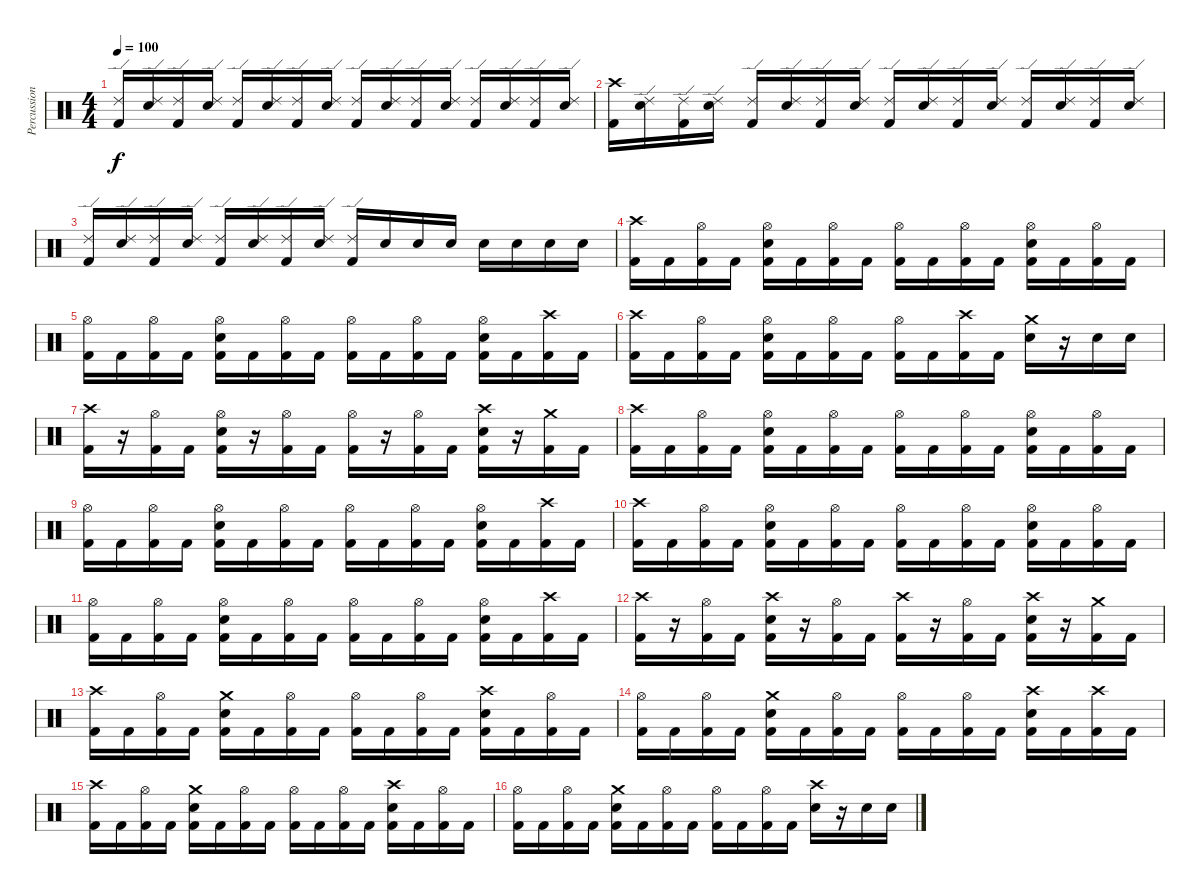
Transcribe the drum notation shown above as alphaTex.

\track ("Percussion" "Percussion") {instrument percussion}
\staff {score}
\articulation defaults
\ts (4 4)
\tempo 100
\clef neutral
\ks c
("Ride (edge) 2" "Kick (hit) 2").16{dy f} ("Ride (edge) 2" "Snare (hit) 2").16 ("Ride (edge) 2" "Kick (hit) 2").16 ("Ride (edge) 2" "Snare (hit) 2").16 ("Ride (edge) 2" "Kick (hit) 2").16 ("Ride (edge) 2" "Snare (hit) 2").16 ("Ride (edge) 2" "Kick (hit) 2").16 ("Ride (edge) 2" "Snare (hit) 2").16 ("Ride (edge) 2" "Kick (hit) 2").16 ("Ride (edge) 2" "Snare (hit) 2").16 ("Ride (edge) 2" "Kick (hit) 2").16 ("Ride (edge) 2" "Snare (hit) 2").16 ("Ride (edge) 2" "Kick (hit) 2").16 ("Ride (edge) 2" "Snare (hit) 2").16 ("Ride (edge) 2" "Kick (hit) 2").16 ("Ride (edge) 2" "Snare (hit) 2").16 |
("Crash high (hit)" "Kick (hit) 2").16 ("Ride (edge) 2" "Snare (hit) 2").16 ("Ride (edge) 2" "Kick (hit) 2").16 ("Ride (edge) 2" "Snare (hit) 2").16 ("Ride (edge) 2" "Kick (hit) 2").16 ("Ride (edge) 2" "Snare (hit) 2").16 ("Ride (edge) 2" "Kick (hit) 2").16 ("Ride (edge) 2" "Snare (hit) 2").16 ("Ride (edge) 2" "Kick (hit) 2").16 ("Ride (edge) 2" "Snare (hit) 2").16 ("Ride (edge) 2" "Kick (hit) 2").16 ("Ride (edge) 2" "Snare (hit) 2").16 ("Ride (edge) 2" "Kick (hit) 2").16 ("Ride (edge) 2" "Snare (hit) 2").16 ("Ride (edge) 2" "Kick (hit) 2").16 ("Ride (edge) 2" "Snare (hit) 2").16 |
("Ride (edge) 2" "Kick (hit) 2").16 ("Ride (edge) 2" "Snare (hit) 2").16 ("Ride (edge) 2" "Kick (hit) 2").16 ("Ride (edge) 2" "Snare (hit) 2").16 ("Ride (edge) 2" "Kick (hit) 2").16 ("Ride (edge) 2" "Snare (hit) 2").16 ("Ride (edge) 2" "Kick (hit) 2").16 ("Ride (edge) 2" "Snare (hit) 2").16 ("Ride (edge) 2" "Kick (hit) 2").16 "Snare (hit) 2".16 "Snare (hit) 2".16 "Snare (hit) 2".16 "Snare (hit) 2".16 "Snare (hit) 2".16 "Snare (hit) 2".16 "Snare (hit) 2".16 |
("Crash high (hit)" "Kick (hit) 2").16 "Kick (hit) 2".16 ("Hi-Hat (open)" "Kick (hit) 2").16 "Kick (hit) 2".16 ("Hi-Hat (open)" "Snare (hit) 2" "Kick (hit) 2").16 "Kick (hit) 2".16 ("Hi-Hat (open)" "Kick (hit) 2").16 "Kick (hit) 2".16 ("Hi-Hat (open)" "Kick (hit) 2").16 "Kick (hit) 2".16 ("Hi-Hat (open)" "Kick (hit) 2").16 "Kick (hit) 2".16 ("Hi-Hat (open)" "Snare (hit) 2" "Kick (hit) 2").16 "Kick (hit) 2".16 ("Hi-Hat (open)" "Kick (hit) 2").16 "Kick (hit) 2".16 |
("Hi-Hat (open)" "Kick (hit) 2").16 "Kick (hit) 2".16 ("Hi-Hat (open)" "Kick (hit) 2").16 "Kick (hit) 2".16 ("Hi-Hat (open)" "Snare (hit) 2" "Kick (hit) 2").16 "Kick (hit) 2".16 ("Hi-Hat (open)" "Kick (hit) 2").16 "Kick (hit) 2".16 ("Hi-Hat (open)" "Kick (hit) 2").16 "Kick (hit) 2".16 ("Hi-Hat (open)" "Kick (hit) 2").16 "Kick (hit) 2".16 ("Hi-Hat (open)" "Snare (hit) 2" "Kick (hit) 2").16 "Kick (hit) 2".16 ("Crash high (hit)" "Kick (hit) 2").16 "Kick (hit) 2".16 |
("Crash high (hit)" "Kick (hit) 2").16 "Kick (hit) 2".16 ("Hi-Hat (open)" "Kick (hit) 2").16 "Kick (hit) 2".16 ("Hi-Hat (open)" "Snare (hit) 2" "Kick (hit) 2").16 "Kick (hit) 2".16 ("Hi-Hat (open)" "Kick (hit) 2").16 "Kick (hit) 2".16 ("Hi-Hat (open)" "Kick (hit) 2").16 "Kick (hit) 2".16 ("Crash high (hit)" "Kick (hit) 2").16 "Kick (hit) 2".16 ("Crash medium (hit)" "Snare (hit) 2").16 r.16 "Snare (hit) 2".16 "Snare (hit) 2".16 |
("Crash high (hit)" "Kick (hit) 2").16 r.16 ("Hi-Hat (open)" "Kick (hit) 2").16 "Kick (hit) 2".16 ("Hi-Hat (open)" "Snare (hit) 2" "Kick (hit) 2").16 r.16 ("Hi-Hat (open)" "Kick (hit) 2").16 "Kick (hit) 2".16 ("Hi-Hat (open)" "Kick (hit) 2").16 r.16 ("Hi-Hat (open)" "Kick (hit) 2").16 "Kick (hit) 2".16 ("Crash high (hit)" "Snare (hit) 2" "Kick (hit) 2").16 r.16 ("Crash medium (hit)" "Kick (hit) 2").16 "Kick (hit) 2".16 |
("Crash high (hit)" "Kick (hit) 2").16 "Kick (hit) 2".16 ("Hi-Hat (open)" "Kick (hit) 2").16 "Kick (hit) 2".16 ("Hi-Hat (open)" "Snare (hit) 2" "Kick (hit) 2").16 "Kick (hit) 2".16 ("Hi-Hat (open)" "Kick (hit) 2").16 "Kick (hit) 2".16 ("Hi-Hat (open)" "Kick (hit) 2").16 "Kick (hit) 2".16 ("Hi-Hat (open)" "Kick (hit) 2").16 "Kick (hit) 2".16 ("Hi-Hat (open)" "Snare (hit) 2" "Kick (hit) 2").16 "Kick (hit) 2".16 ("Hi-Hat (open)" "Kick (hit) 2").16 "Kick (hit) 2".16 |
("Hi-Hat (open)" "Kick (hit) 2").16 "Kick (hit) 2".16 ("Hi-Hat (open)" "Kick (hit) 2").16 "Kick (hit) 2".16 ("Hi-Hat (open)" "Snare (hit) 2" "Kick (hit) 2").16 "Kick (hit) 2".16 ("Hi-Hat (open)" "Kick (hit) 2").16 "Kick (hit) 2".16 ("Hi-Hat (open)" "Kick (hit) 2").16 "Kick (hit) 2".16 ("Hi-Hat (open)" "Kick (hit) 2").16 "Kick (hit) 2".16 ("Hi-Hat (open)" "Snare (hit) 2" "Kick (hit) 2").16 "Kick (hit) 2".16 ("Crash high (hit)" "Kick (hit) 2").16 "Kick (hit) 2".16 |
("Crash high (hit)" "Kick (hit) 2").16 "Kick (hit) 2".16 ("Hi-Hat (open)" "Kick (hit) 2").16 "Kick (hit) 2".16 ("Hi-Hat (open)" "Snare (hit) 2" "Kick (hit) 2").16 "Kick (hit) 2".16 ("Hi-Hat (open)" "Kick (hit) 2").16 "Kick (hit) 2".16 ("Hi-Hat (open)" "Kick (hit) 2").16 "Kick (hit) 2".16 ("Hi-Hat (open)" "Kick (hit) 2").16 "Kick (hit) 2".16 ("Hi-Hat (open)" "Snare (hit) 2" "Kick (hit) 2").16 "Kick (hit) 2".16 ("Hi-Hat (open)" "Kick (hit) 2").16 "Kick (hit) 2".16 |
("Hi-Hat (open)" "Kick (hit) 2").16 "Kick (hit) 2".16 ("Hi-Hat (open)" "Kick (hit) 2").16 "Kick (hit) 2".16 ("Hi-Hat (open)" "Snare (hit) 2" "Kick (hit) 2").16 "Kick (hit) 2".16 ("Hi-Hat (open)" "Kick (hit) 2").16 "Kick (hit) 2".16 ("Hi-Hat (open)" "Kick (hit) 2").16 "Kick (hit) 2".16 ("Hi-Hat (open)" "Kick (hit) 2").16 "Kick (hit) 2".16 ("Hi-Hat (open)" "Snare (hit) 2" "Kick (hit) 2").16 "Kick (hit) 2".16 ("Crash high (hit)" "Kick (hit) 2").16 "Kick (hit) 2".16 |
("Crash high (hit)" "Kick (hit) 2").16 r.16 ("Hi-Hat (open)" "Kick (hit) 2").16 "Kick (hit) 2".16 ("Crash high (hit)" "Snare (hit) 2" "Kick (hit) 2").16 r.16 ("Hi-Hat (open)" "Kick (hit) 2").16 "Kick (hit) 2".16 ("Crash high (hit)" "Kick (hit) 2").16 r.16 ("Hi-Hat (open)" "Kick (hit) 2").16 "Kick (hit) 2".16 ("Crash high (hit)" "Snare (hit) 2" "Kick (hit) 2").16 r.16 ("Crash medium (hit)" "Kick (hit) 2").16 "Kick (hit) 2".16 |
("Crash high (hit)" "Kick (hit) 2").16 "Kick (hit) 2".16 ("Hi-Hat (open)" "Kick (hit) 2").16 "Kick (hit) 2".16 ("Crash medium (hit)" "Snare (hit) 2" "Kick (hit) 2").16 "Kick (hit) 2".16 ("Hi-Hat (open)" "Kick (hit) 2").16 "Kick (hit) 2".16 ("Hi-Hat (open)" "Kick (hit) 2").16 "Kick (hit) 2".16 ("Hi-Hat (open)" "Kick (hit) 2").16 "Kick (hit) 2".16 ("Crash high (hit)" "Snare (hit) 2" "Kick (hit) 2").16 "Kick (hit) 2".16 ("Hi-Hat (open)" "Kick (hit) 2").16 "Kick (hit) 2".16 |
("Hi-Hat (open)" "Kick (hit) 2").16 "Kick (hit) 2".16 ("Hi-Hat (open)" "Kick (hit) 2").16 "Kick (hit) 2".16 ("Crash medium (hit)" "Snare (hit) 2" "Kick (hit) 2").16 "Kick (hit) 2".16 ("Hi-Hat (open)" "Kick (hit) 2").16 "Kick (hit) 2".16 ("Hi-Hat (open)" "Kick (hit) 2").16 "Kick (hit) 2".16 ("Hi-Hat (open)" "Kick (hit) 2").16 "Kick (hit) 2".16 ("Crash high (hit)" "Snare (hit) 2" "Kick (hit) 2").16 "Kick (hit) 2".16 ("Crash high (hit)" "Kick (hit) 2").16 "Kick (hit) 2".16 |
("Crash high (hit)" "Kick (hit) 2").16 "Kick (hit) 2".16 ("Hi-Hat (open)" "Kick (hit) 2").16 "Kick (hit) 2".16 ("Crash medium (hit)" "Snare (hit) 2" "Kick (hit) 2").16 "Kick (hit) 2".16 ("Hi-Hat (open)" "Kick (hit) 2").16 "Kick (hit) 2".16 ("Hi-Hat (open)" "Kick (hit) 2").16 "Kick (hit) 2".16 ("Hi-Hat (open)" "Kick (hit) 2").16 "Kick (hit) 2".16 ("Crash high (hit)" "Snare (hit) 2" "Kick (hit) 2").16 "Kick (hit) 2".16 ("Hi-Hat (open)" "Kick (hit) 2").16 "Kick (hit) 2".16 |
("Hi-Hat (open)" "Kick (hit) 2").16 "Kick (hit) 2".16 ("Hi-Hat (open)" "Kick (hit) 2").16 "Kick (hit) 2".16 ("Crash medium (hit)" "Snare (hit) 2" "Kick (hit) 2").16 "Kick (hit) 2".16 ("Hi-Hat (open)" "Kick (hit) 2").16 "Kick (hit) 2".16 ("Hi-Hat (open)" "Kick (hit) 2").16 "Kick (hit) 2".16 ("Hi-Hat (open)" "Kick (hit) 2").16 "Kick (hit) 2".16 ("Crash high (hit)" "Snare (hit) 2").16 r.16 "Snare (hit) 2".16 "Snare (hit) 2".16
